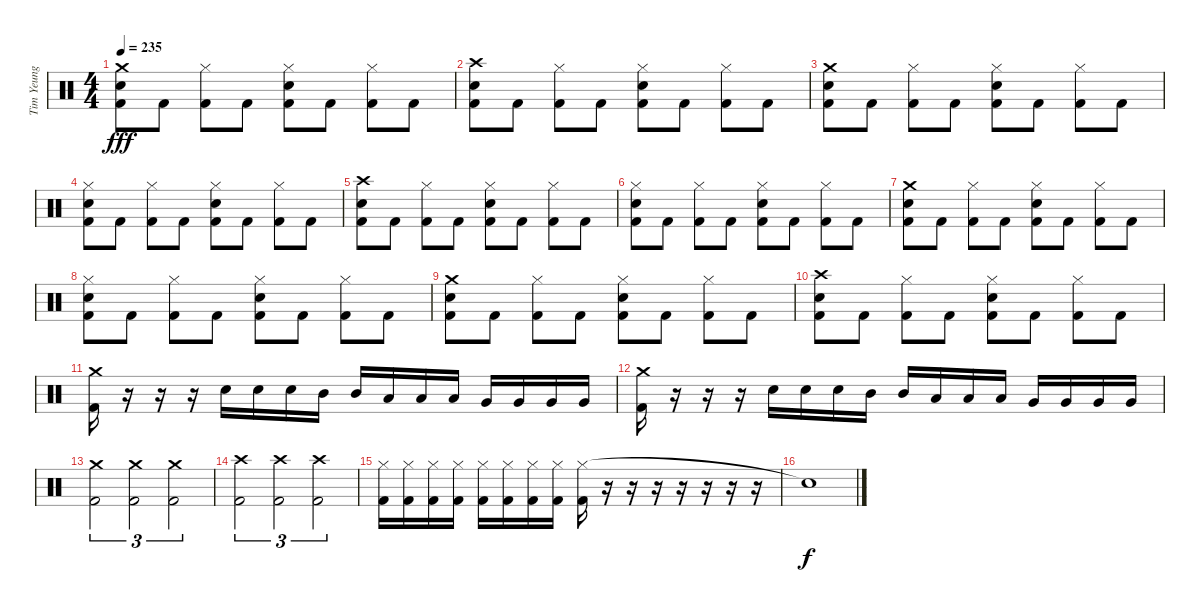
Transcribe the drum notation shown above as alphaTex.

\track ("Tim Yeung" "Tim Yeung") {instrument percussion}
\staff {score}
\articulation defaults
\ts (4 4)
\tempo 235
\clef neutral
\ks c
("Crash medium (hit)" "Electric Snare (hit)" "Kick (hit) 2").8{dy fff} "Kick (hit) 2".8 ("Hi-Hat (closed)" "Kick (hit) 2").8 "Kick (hit) 2".8 ("Hi-Hat (closed)" "Electric Snare (hit)" "Kick (hit) 2").8 "Kick (hit) 2".8 ("Hi-Hat (closed)" "Kick (hit) 2").8 "Kick (hit) 2".8 |
("Crash high (hit)" "Electric Snare (hit)" "Kick (hit) 2").8 "Kick (hit) 2".8 ("Hi-Hat (closed)" "Kick (hit) 2").8 "Kick (hit) 2".8 ("Hi-Hat (closed)" "Electric Snare (hit)" "Kick (hit) 2").8 "Kick (hit) 2".8 ("Hi-Hat (closed)" "Kick (hit) 2").8 "Kick (hit) 2".8 |
("Crash medium (hit)" "Electric Snare (hit)" "Kick (hit) 2").8 "Kick (hit) 2".8 ("Hi-Hat (closed)" "Kick (hit) 2").8 "Kick (hit) 2".8 ("Hi-Hat (closed)" "Electric Snare (hit)" "Kick (hit) 2").8 "Kick (hit) 2".8 ("Hi-Hat (closed)" "Kick (hit) 2").8 "Kick (hit) 2".8 |
("Hi-Hat (closed)" "Electric Snare (hit)" "Kick (hit) 2").8 "Kick (hit) 2".8 ("Hi-Hat (closed)" "Kick (hit) 2").8 "Kick (hit) 2".8 ("Hi-Hat (closed)" "Electric Snare (hit)" "Kick (hit) 2").8 "Kick (hit) 2".8 ("Hi-Hat (closed)" "Kick (hit) 2").8 "Kick (hit) 2".8 |
("Crash high (hit)" "Electric Snare (hit)" "Kick (hit) 2").8 "Kick (hit) 2".8 ("Hi-Hat (closed)" "Kick (hit) 2").8 "Kick (hit) 2".8 ("Hi-Hat (closed)" "Electric Snare (hit)" "Kick (hit) 2").8 "Kick (hit) 2".8 ("Hi-Hat (closed)" "Kick (hit) 2").8 "Kick (hit) 2".8 |
("Hi-Hat (closed)" "Electric Snare (hit)" "Kick (hit) 2").8 "Kick (hit) 2".8 ("Hi-Hat (closed)" "Kick (hit) 2").8 "Kick (hit) 2".8 ("Hi-Hat (closed)" "Electric Snare (hit)" "Kick (hit) 2").8 "Kick (hit) 2".8 ("Hi-Hat (closed)" "Kick (hit) 2").8 "Kick (hit) 2".8 |
("Crash medium (hit)" "Electric Snare (hit)" "Kick (hit) 2").8 "Kick (hit) 2".8 ("Hi-Hat (closed)" "Kick (hit) 2").8 "Kick (hit) 2".8 ("Hi-Hat (closed)" "Electric Snare (hit)" "Kick (hit) 2").8 "Kick (hit) 2".8 ("Hi-Hat (closed)" "Kick (hit) 2").8 "Kick (hit) 2".8 |
("Hi-Hat (closed)" "Electric Snare (hit)" "Kick (hit) 2").8 "Kick (hit) 2".8 ("Hi-Hat (closed)" "Kick (hit) 2").8 "Kick (hit) 2".8 ("Hi-Hat (closed)" "Electric Snare (hit)" "Kick (hit) 2").8 "Kick (hit) 2".8 ("Hi-Hat (closed)" "Kick (hit) 2").8 "Kick (hit) 2".8 |
("Crash medium (hit)" "Electric Snare (hit)" "Kick (hit) 2").8 "Kick (hit) 2".8 ("Hi-Hat (closed)" "Kick (hit) 2").8 "Kick (hit) 2".8 ("Hi-Hat (closed)" "Electric Snare (hit)" "Kick (hit) 2").8 "Kick (hit) 2".8 ("Hi-Hat (closed)" "Kick (hit) 2").8 "Kick (hit) 2".8 |
("Crash high (hit)" "Electric Snare (hit)" "Kick (hit) 2").8 "Kick (hit) 2".8 ("Hi-Hat (closed)" "Kick (hit) 2").8 "Kick (hit) 2".8 ("Hi-Hat (closed)" "Electric Snare (hit)" "Kick (hit) 2").8 "Kick (hit) 2".8 ("Hi-Hat (closed)" "Kick (hit) 2").8 "Kick (hit) 2".8 |
("Crash medium (hit)" "Kick (hit) 2").16 r.16 r.16 r.16 "Electric Snare (hit)".16 "Electric Snare (hit)".16 "Electric Snare (hit)".16 "Mid Tom (hit)".16 "Mid Tom (hit)".16 "Low Tom (hit)".16 "Low Tom (hit)".16 "Low Tom (hit)".16 "Very Low Tom (hit)".16 "Very Low Tom (hit)".16 "Very Low Tom (hit)".16 "Very Low Tom (hit)".16 |
("Crash medium (hit)" "Kick (hit) 2").16 r.16 r.16 r.16 "Electric Snare (hit)".16 "Electric Snare (hit)".16 "Electric Snare (hit)".16 "Mid Tom (hit)".16 "Mid Tom (hit)".16 "Low Tom (hit)".16 "Low Tom (hit)".16 "Low Tom (hit)".16 "Very Low Tom (hit)".16 "Very Low Tom (hit)".16 "Very Low Tom (hit)".16 "Very Low Tom (hit)".16 |
("Crash medium (hit)" "Kick (hit) 2").2{tu (3 2)} ("Crash medium (hit)" "Kick (hit) 2").2{tu (3 2)} ("Crash medium (hit)" "Kick (hit) 2").2{tu (3 2)} |
("Crash high (hit)" "Kick (hit) 2").2{tu (3 2)} ("Crash high (hit)" "Kick (hit) 2").2{tu (3 2)} ("Crash high (hit)" "Kick (hit) 2").2{tu (3 2)} |
("Hi-Hat (closed)" "Kick (hit) 2").16 ("Hi-Hat (closed)" "Kick (hit) 2").16 ("Hi-Hat (closed)" "Kick (hit) 2").16 ("Hi-Hat (closed)" "Kick (hit) 2").16 ("Hi-Hat (closed)" "Kick (hit) 2").16 ("Hi-Hat (closed)" "Kick (hit) 2").16 ("Hi-Hat (closed)" "Kick (hit) 2").16 ("Hi-Hat (closed)" "Kick (hit) 2").16 ("Hi-Hat (closed)" "Kick (hit) 2").16 r.16 r.16 r.16 r.16 r.16 r.16 r.16 |
"Snare (hit)"{t}.1{dy f}
